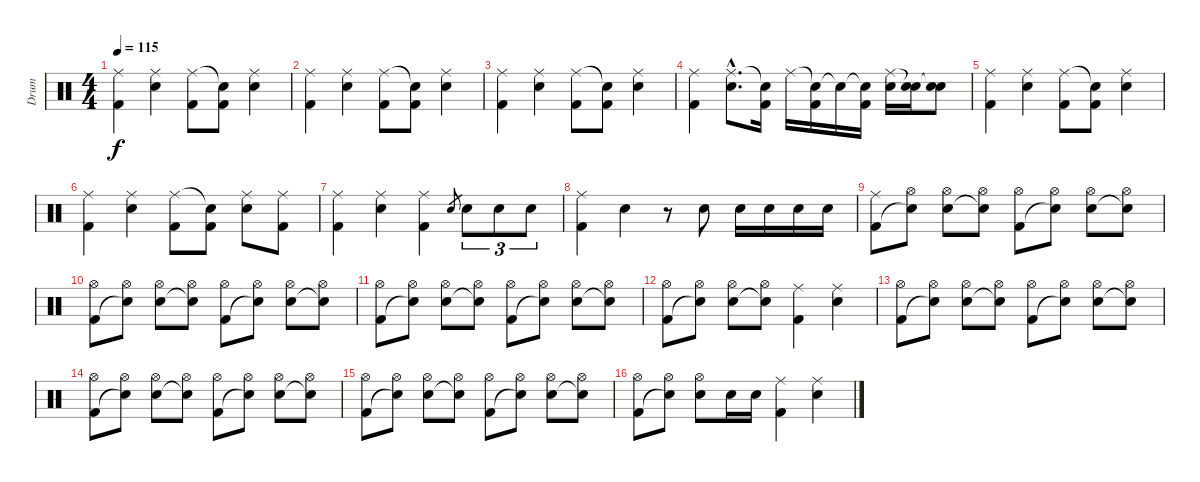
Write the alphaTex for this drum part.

\track ("Drum" "Drum") {instrument percussion}
\staff {score}
\articulation defaults
\ts (4 4)
\tempo 115
\clef neutral
\ks c
("Ride (middle)" "Kick (hit) 2").4{dy f} ("Ride (middle)" "Electric Snare (hit)").4 ("Ride (middle)" "Kick (hit) 2").8 ("Snare (hit)"{t} "Kick (hit) 2").8 ("Ride (middle)" "Electric Snare (hit)").4 |
("Ride (middle)" "Kick (hit) 2").4 ("Ride (middle)" "Electric Snare (hit)").4 ("Ride (middle)" "Kick (hit) 2").8 ("Snare (hit)"{t} "Kick (hit) 2").8 ("Ride (middle)" "Electric Snare (hit)").4 |
("Ride (middle)" "Kick (hit) 2").4 ("Ride (middle)" "Electric Snare (hit)").4 ("Ride (middle)" "Kick (hit) 2").8 ("Snare (hit)"{t} "Kick (hit) 2").8 ("Ride (middle)" "Electric Snare (hit)").4 |
("Ride (middle)" "Kick (hit) 2").4 ("Ride (middle)"{hac} "Electric Snare (hit)"{hac}).8{d} ("Snare (hit)"{t} "Kick (hit) 2").16 "Ride (middle)".16 ("Snare (hit)"{t} "Kick (hit) 2").16 "Snare (hit)"{t}.16 ("Snare (hit)"{t} "Kick (hit) 2").16 ("Ride (middle)" "Electric Snare (hit)").16 ("Snare (hit)"{t} "Electric Snare (hit)").16 ("Snare (hit)"{t} "Electric Snare (hit)").8 |
("Ride (middle)" "Kick (hit) 2").4 ("Ride (middle)" "Electric Snare (hit)").4 ("Ride (middle)" "Kick (hit) 2").8 ("Snare (hit)"{t} "Kick (hit) 2").8 ("Ride (middle)" "Electric Snare (hit)").4 |
("Ride (middle)" "Kick (hit) 2").4 ("Ride (middle)" "Electric Snare (hit)").4 ("Ride (middle)" "Kick (hit) 2").8 ("Snare (hit)"{t} "Kick (hit) 2").8 ("Ride (middle)" "Electric Snare (hit)").8 ("Ride (middle)" "Kick (hit) 2").8 |
("Ride (middle)" "Kick (hit) 2").4 ("Ride (middle)" "Electric Snare (hit)").4 ("Ride (middle)" "Kick (hit) 2").4 "Electric Snare (hit)".8{gr} "Electric Snare (hit)".8{tu (3 2)} "Electric Snare (hit)".8{tu (3 2)} "Electric Snare (hit)".8{tu (3 2)} |
("Ride (middle)" "Kick (hit) 2").4 "Electric Snare (hit)".4 r.8 "Electric Snare (hit)".8 "Electric Snare (hit)".16 "Electric Snare (hit)".16 "Electric Snare (hit)".16 "Electric Snare (hit)".16 |
("Ride (middle)" "Kick (hit) 2").8 ("Hi-Hat (open)" "Snare (hit)"{t}).8 ("Hi-Hat (open)" "Electric Snare (hit)").8 ("Hi-Hat (open)" "Snare (hit)"{t}).8 ("Hi-Hat (open)" "Kick (hit) 2").8 ("Hi-Hat (open)" "Snare (hit)"{t}).8 ("Hi-Hat (open)" "Electric Snare (hit)").8 ("Hi-Hat (open)" "Snare (hit)"{t}).8 |
("Hi-Hat (open)" "Kick (hit) 2").8 ("Hi-Hat (open)" "Snare (hit)"{t}).8 ("Hi-Hat (open)" "Electric Snare (hit)").8 ("Hi-Hat (open)" "Snare (hit)"{t}).8 ("Hi-Hat (open)" "Kick (hit) 2").8 ("Hi-Hat (open)" "Snare (hit)"{t}).8 ("Hi-Hat (open)" "Electric Snare (hit)").8 ("Hi-Hat (open)" "Snare (hit)"{t}).8 |
("Hi-Hat (open)" "Kick (hit) 2").8 ("Hi-Hat (open)" "Snare (hit)"{t}).8 ("Hi-Hat (open)" "Electric Snare (hit)").8 ("Hi-Hat (open)" "Snare (hit)"{t}).8 ("Hi-Hat (open)" "Kick (hit) 2").8 ("Hi-Hat (open)" "Snare (hit)"{t}).8 ("Hi-Hat (open)" "Electric Snare (hit)").8 ("Hi-Hat (open)" "Snare (hit)"{t}).8 |
("Hi-Hat (open)" "Kick (hit) 2").8 ("Hi-Hat (open)" "Snare (hit)"{t}).8 ("Hi-Hat (open)" "Electric Snare (hit)").8 ("Hi-Hat (open)" "Snare (hit)"{t}).8 ("Ride (middle)" "Kick (hit) 2").4 ("Ride (middle)" "Electric Snare (hit)").4 |
("Hi-Hat (open)" "Kick (hit) 2").8 ("Hi-Hat (open)" "Snare (hit)"{t}).8 ("Hi-Hat (open)" "Electric Snare (hit)").8 ("Hi-Hat (open)" "Snare (hit)"{t}).8 ("Hi-Hat (open)" "Kick (hit) 2").8 ("Hi-Hat (open)" "Snare (hit)"{t}).8 ("Hi-Hat (open)" "Electric Snare (hit)").8 ("Hi-Hat (open)" "Snare (hit)"{t}).8 |
("Hi-Hat (open)" "Kick (hit) 2").8 ("Hi-Hat (open)" "Snare (hit)"{t}).8 ("Hi-Hat (open)" "Electric Snare (hit)").8 ("Hi-Hat (open)" "Snare (hit)"{t}).8 ("Hi-Hat (open)" "Kick (hit) 2").8 ("Hi-Hat (open)" "Snare (hit)"{t}).8 ("Hi-Hat (open)" "Electric Snare (hit)").8 ("Hi-Hat (open)" "Snare (hit)"{t}).8 |
("Hi-Hat (open)" "Kick (hit) 2").8 ("Hi-Hat (open)" "Snare (hit)"{t}).8 ("Hi-Hat (open)" "Electric Snare (hit)").8 ("Hi-Hat (open)" "Snare (hit)"{t}).8 ("Hi-Hat (open)" "Kick (hit) 2").8 ("Hi-Hat (open)" "Snare (hit)"{t}).8 ("Hi-Hat (open)" "Electric Snare (hit)").8 ("Hi-Hat (open)" "Snare (hit)"{t}).8 |
("Hi-Hat (open)" "Kick (hit) 2").8 ("Hi-Hat (open)" "Snare (hit)"{t}).8 ("Hi-Hat (open)" "Electric Snare (hit)").8 "Electric Snare (hit)".16 "Electric Snare (hit)".16 ("Ride (middle)" "Kick (hit) 2").4 ("Ride (middle)" "Electric Snare (hit)").4
